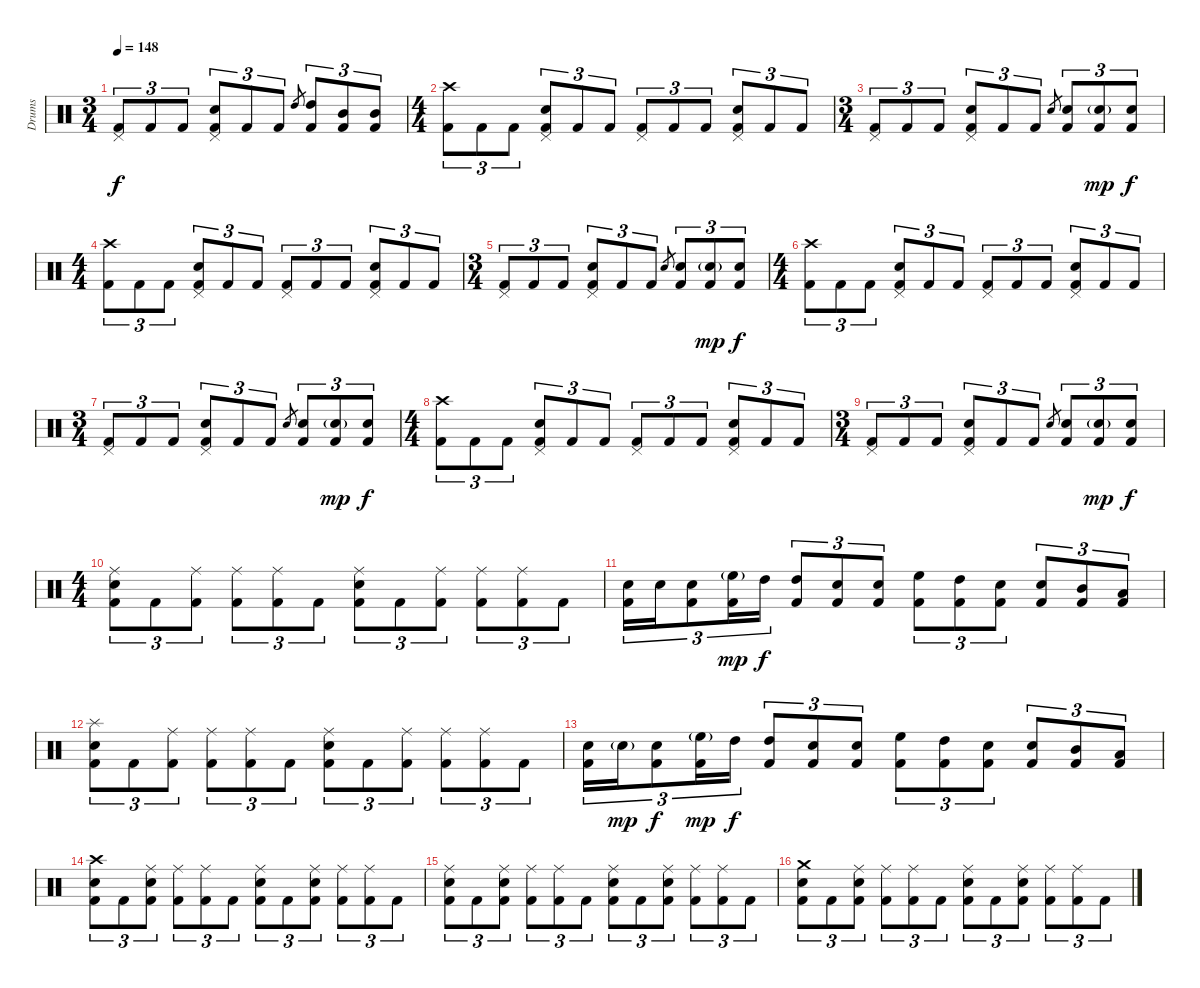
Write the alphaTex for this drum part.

\track ("Drums" "Drums") {instrument percussion}
\staff {score}
\articulation defaults
\ts (3 4)
\tempo 148
\clef neutral
\ks c
("Pedal Hi-Hat (hit)" "Kick (hit) 2").8{tu (3 2) dy f} "Kick (hit) 2".8{tu (3 2)} "Kick (hit) 2".8{tu (3 2)} ("Pedal Hi-Hat (hit)" "Snare (hit) 2" "Kick (hit) 2").8{tu (3 2)} "Kick (hit) 2".8{tu (3 2)} "Kick (hit) 2".8{tu (3 2)} "High Tom (hit)".8{gr} ("High Tom (hit)" "Kick (hit) 2").8{tu (3 2)} ("Mid Tom (hit)" "Kick (hit) 2").8{tu (3 2)} ("Mid Tom (hit)" "Kick (hit) 2").8{tu (3 2)} |
\ts (4 4)
("Crash high (hit)" "Kick (hit) 2").8{tu (3 2)} "Kick (hit) 2".8{tu (3 2)} "Kick (hit) 2".8{tu (3 2)} ("Pedal Hi-Hat (hit)" "Snare (hit) 2" "Kick (hit) 2").8{tu (3 2)} "Kick (hit) 2".8{tu (3 2)} "Kick (hit) 2".8{tu (3 2)} ("Pedal Hi-Hat (hit)" "Kick (hit) 2").8{tu (3 2)} "Kick (hit) 2".8{tu (3 2)} "Kick (hit) 2".8{tu (3 2)} ("Pedal Hi-Hat (hit)" "Snare (hit) 2" "Kick (hit) 2").8{tu (3 2)} "Kick (hit) 2".8{tu (3 2)} "Kick (hit) 2".8{tu (3 2)} |
\ts (3 4)
("Pedal Hi-Hat (hit)" "Kick (hit) 2").8{tu (3 2)} "Kick (hit) 2".8{tu (3 2)} "Kick (hit) 2".8{tu (3 2)} ("Pedal Hi-Hat (hit)" "Snare (hit) 2" "Kick (hit) 2").8{tu (3 2)} "Kick (hit) 2".8{tu (3 2)} "Kick (hit) 2".8{tu (3 2)} "Snare (hit) 2".8{gr} ("Snare (hit) 2" "Kick (hit) 2").8{tu (3 2)} ("Snare (hit) 2"{g} "Kick (hit) 2").8{tu (3 2) dy mp} ("Snare (hit) 2" "Kick (hit) 2").8{tu (3 2) dy f} |
\ts (4 4)
("Crash high (hit)" "Kick (hit) 2").8{tu (3 2)} "Kick (hit) 2".8{tu (3 2)} "Kick (hit) 2".8{tu (3 2)} ("Pedal Hi-Hat (hit)" "Snare (hit) 2" "Kick (hit) 2").8{tu (3 2)} "Kick (hit) 2".8{tu (3 2)} "Kick (hit) 2".8{tu (3 2)} ("Pedal Hi-Hat (hit)" "Kick (hit) 2").8{tu (3 2)} "Kick (hit) 2".8{tu (3 2)} "Kick (hit) 2".8{tu (3 2)} ("Pedal Hi-Hat (hit)" "Snare (hit) 2" "Kick (hit) 2").8{tu (3 2)} "Kick (hit) 2".8{tu (3 2)} "Kick (hit) 2".8{tu (3 2)} |
\ts (3 4)
("Pedal Hi-Hat (hit)" "Kick (hit) 2").8{tu (3 2)} "Kick (hit) 2".8{tu (3 2)} "Kick (hit) 2".8{tu (3 2)} ("Pedal Hi-Hat (hit)" "Snare (hit) 2" "Kick (hit) 2").8{tu (3 2)} "Kick (hit) 2".8{tu (3 2)} "Kick (hit) 2".8{tu (3 2)} "Snare (hit) 2".8{gr} ("Snare (hit) 2" "Kick (hit) 2").8{tu (3 2)} ("Snare (hit) 2"{g} "Kick (hit) 2").8{tu (3 2) dy mp} ("Snare (hit) 2" "Kick (hit) 2").8{tu (3 2) dy f} |
\ts (4 4)
("Crash high (hit)" "Kick (hit) 2").8{tu (3 2)} "Kick (hit) 2".8{tu (3 2)} "Kick (hit) 2".8{tu (3 2)} ("Pedal Hi-Hat (hit)" "Snare (hit) 2" "Kick (hit) 2").8{tu (3 2)} "Kick (hit) 2".8{tu (3 2)} "Kick (hit) 2".8{tu (3 2)} ("Pedal Hi-Hat (hit)" "Kick (hit) 2").8{tu (3 2)} "Kick (hit) 2".8{tu (3 2)} "Kick (hit) 2".8{tu (3 2)} ("Pedal Hi-Hat (hit)" "Snare (hit) 2" "Kick (hit) 2").8{tu (3 2)} "Kick (hit) 2".8{tu (3 2)} "Kick (hit) 2".8{tu (3 2)} |
\ts (3 4)
("Pedal Hi-Hat (hit)" "Kick (hit) 2").8{tu (3 2)} "Kick (hit) 2".8{tu (3 2)} "Kick (hit) 2".8{tu (3 2)} ("Pedal Hi-Hat (hit)" "Snare (hit) 2" "Kick (hit) 2").8{tu (3 2)} "Kick (hit) 2".8{tu (3 2)} "Kick (hit) 2".8{tu (3 2)} "Snare (hit) 2".8{gr} ("Snare (hit) 2" "Kick (hit) 2").8{tu (3 2)} ("Snare (hit) 2"{g} "Kick (hit) 2").8{tu (3 2) dy mp} ("Snare (hit) 2" "Kick (hit) 2").8{tu (3 2) dy f} |
\ts (4 4)
("Crash high (hit)" "Kick (hit) 2").8{tu (3 2)} "Kick (hit) 2".8{tu (3 2)} "Kick (hit) 2".8{tu (3 2)} ("Pedal Hi-Hat (hit)" "Snare (hit) 2" "Kick (hit) 2").8{tu (3 2)} "Kick (hit) 2".8{tu (3 2)} "Kick (hit) 2".8{tu (3 2)} ("Pedal Hi-Hat (hit)" "Kick (hit) 2").8{tu (3 2)} "Kick (hit) 2".8{tu (3 2)} "Kick (hit) 2".8{tu (3 2)} ("Pedal Hi-Hat (hit)" "Snare (hit) 2" "Kick (hit) 2").8{tu (3 2)} "Kick (hit) 2".8{tu (3 2)} "Kick (hit) 2".8{tu (3 2)} |
\ts (3 4)
("Pedal Hi-Hat (hit)" "Kick (hit) 2").8{tu (3 2)} "Kick (hit) 2".8{tu (3 2)} "Kick (hit) 2".8{tu (3 2)} ("Pedal Hi-Hat (hit)" "Snare (hit) 2" "Kick (hit) 2").8{tu (3 2)} "Kick (hit) 2".8{tu (3 2)} "Kick (hit) 2".8{tu (3 2)} "Snare (hit) 2".8{gr} ("Snare (hit) 2" "Kick (hit) 2").8{tu (3 2)} ("Snare (hit) 2"{g} "Kick (hit) 2").8{tu (3 2) dy mp} ("Snare (hit) 2" "Kick (hit) 2").8{tu (3 2) dy f} |
\ts (4 4)
("Ride (middle)" "Snare (hit) 2" "Kick (hit) 2").8{tu (3 2)} "Kick (hit) 2".8{tu (3 2)} ("Ride (middle)" "Kick (hit) 2").8{tu (3 2)} ("Ride (middle)" "Kick (hit) 2").8{tu (3 2)} ("Ride (middle)" "Kick (hit) 2").8{tu (3 2)} "Kick (hit) 2".8{tu (3 2)} ("Ride (middle)" "Snare (hit) 2" "Kick (hit) 2").8{tu (3 2)} "Kick (hit) 2".8{tu (3 2)} ("Ride (middle)" "Kick (hit) 2").8{tu (3 2)} ("Ride (middle)" "Kick (hit) 2").8{tu (3 2)} ("Ride (middle)" "Kick (hit) 2").8{tu (3 2)} "Kick (hit) 2".8{tu (3 2)} |
("Snare (hit) 2" "Kick (hit) 2").16{tu (3 2)} "Snare (hit) 2".16{tu (3 2)} ("Snare (hit) 2" "Kick (hit) 2").8{tu (3 2)} ("High Floor Tom (hit)"{g} "Kick (hit) 2").16{tu (3 2) dy mp} "High Tom (hit)".16{tu (3 2) dy f} ("High Tom (hit)" "Kick (hit) 2").8{tu (3 2)} ("Snare (hit) 2" "Kick (hit) 2").8{tu (3 2)} ("Snare (hit) 2" "Kick (hit) 2").8{tu (3 2)} ("High Floor Tom (hit)" "Kick (hit) 2").8{tu (3 2)} ("High Tom (hit)" "Kick (hit) 2").8{tu (3 2)} ("Snare (hit) 2" "Kick (hit) 2").8{tu (3 2)} ("Snare (hit) 2" "Kick (hit) 2").8{tu (3 2)} ("Mid Tom (hit)" "Kick (hit) 2").8{tu (3 2)} ("Low Tom (hit)" "Kick (hit) 2").8{tu (3 2)} |
("Splash (hit)" "Snare (hit) 2" "Kick (hit) 2").8{tu (3 2)} "Kick (hit) 2".8{tu (3 2)} ("Ride (middle)" "Kick (hit) 2").8{tu (3 2)} ("Ride (middle)" "Kick (hit) 2").8{tu (3 2)} ("Ride (middle)" "Kick (hit) 2").8{tu (3 2)} "Kick (hit) 2".8{tu (3 2)} ("Ride (middle)" "Snare (hit) 2" "Kick (hit) 2").8{tu (3 2)} "Kick (hit) 2".8{tu (3 2)} ("Ride (middle)" "Kick (hit) 2").8{tu (3 2)} ("Ride (middle)" "Kick (hit) 2").8{tu (3 2)} ("Ride (middle)" "Kick (hit) 2").8{tu (3 2)} "Kick (hit) 2".8{tu (3 2)} |
("Snare (hit) 2" "Kick (hit) 2").16{tu (3 2)} "Snare (hit) 2"{g}.16{tu (3 2) dy mp} ("Snare (hit) 2" "Kick (hit) 2").8{tu (3 2) dy f} ("High Floor Tom (hit)"{g} "Kick (hit) 2").16{tu (3 2) dy mp} "High Tom (hit)".16{tu (3 2) dy f} ("High Tom (hit)" "Kick (hit) 2").8{tu (3 2)} ("Snare (hit) 2" "Kick (hit) 2").8{tu (3 2)} ("Snare (hit) 2" "Kick (hit) 2").8{tu (3 2)} ("High Floor Tom (hit)" "Kick (hit) 2").8{tu (3 2)} ("High Tom (hit)" "Kick (hit) 2").8{tu (3 2)} ("Snare (hit) 2" "Kick (hit) 2").8{tu (3 2)} ("Snare (hit) 2" "Kick (hit) 2").8{tu (3 2)} ("Mid Tom (hit)" "Kick (hit) 2").8{tu (3 2)} ("Low Tom (hit)" "Kick (hit) 2").8{tu (3 2)} |
("Crash high (hit)" "Snare (hit) 2" "Kick (hit) 2").8{tu (3 2)} "Kick (hit) 2".8{tu (3 2)} ("Ride (middle)" "Snare (hit) 2" "Kick (hit) 2").8{tu (3 2)} ("Ride (middle)" "Kick (hit) 2").8{tu (3 2)} ("Ride (middle)" "Kick (hit) 2").8{tu (3 2)} "Kick (hit) 2".8{tu (3 2)} ("Ride (middle)" "Snare (hit) 2" "Kick (hit) 2").8{tu (3 2)} "Kick (hit) 2".8{tu (3 2)} ("Ride (middle)" "Snare (hit) 2" "Kick (hit) 2").8{tu (3 2)} ("Ride (middle)" "Kick (hit) 2").8{tu (3 2)} ("Ride (middle)" "Kick (hit) 2").8{tu (3 2)} "Kick (hit) 2".8{tu (3 2)} |
("Ride (middle)" "Snare (hit) 2" "Kick (hit) 2").8{tu (3 2)} "Kick (hit) 2".8{tu (3 2)} ("Ride (middle)" "Snare (hit) 2" "Kick (hit) 2").8{tu (3 2)} ("Ride (middle)" "Kick (hit) 2").8{tu (3 2)} ("Ride (middle)" "Kick (hit) 2").8{tu (3 2)} "Kick (hit) 2".8{tu (3 2)} ("Ride (middle)" "Snare (hit) 2" "Kick (hit) 2").8{tu (3 2)} "Kick (hit) 2".8{tu (3 2)} ("Ride (middle)" "Snare (hit) 2" "Kick (hit) 2").8{tu (3 2)} ("Ride (middle)" "Kick (hit) 2").8{tu (3 2)} ("Ride (middle)" "Kick (hit) 2").8{tu (3 2)} "Kick (hit) 2".8{tu (3 2)} |
("Crash medium (hit)" "Snare (hit) 2" "Kick (hit) 2").8{tu (3 2)} "Kick (hit) 2".8{tu (3 2)} ("Ride (middle)" "Snare (hit) 2" "Kick (hit) 2").8{tu (3 2)} ("Ride (middle)" "Kick (hit) 2").8{tu (3 2)} ("Ride (middle)" "Kick (hit) 2").8{tu (3 2)} "Kick (hit) 2".8{tu (3 2)} ("Ride (middle)" "Snare (hit) 2" "Kick (hit) 2").8{tu (3 2)} "Kick (hit) 2".8{tu (3 2)} ("Ride (middle)" "Snare (hit) 2" "Kick (hit) 2").8{tu (3 2)} ("Ride (middle)" "Kick (hit) 2").8{tu (3 2)} ("Ride (middle)" "Kick (hit) 2").8{tu (3 2)} "Kick (hit) 2".8{tu (3 2)}
